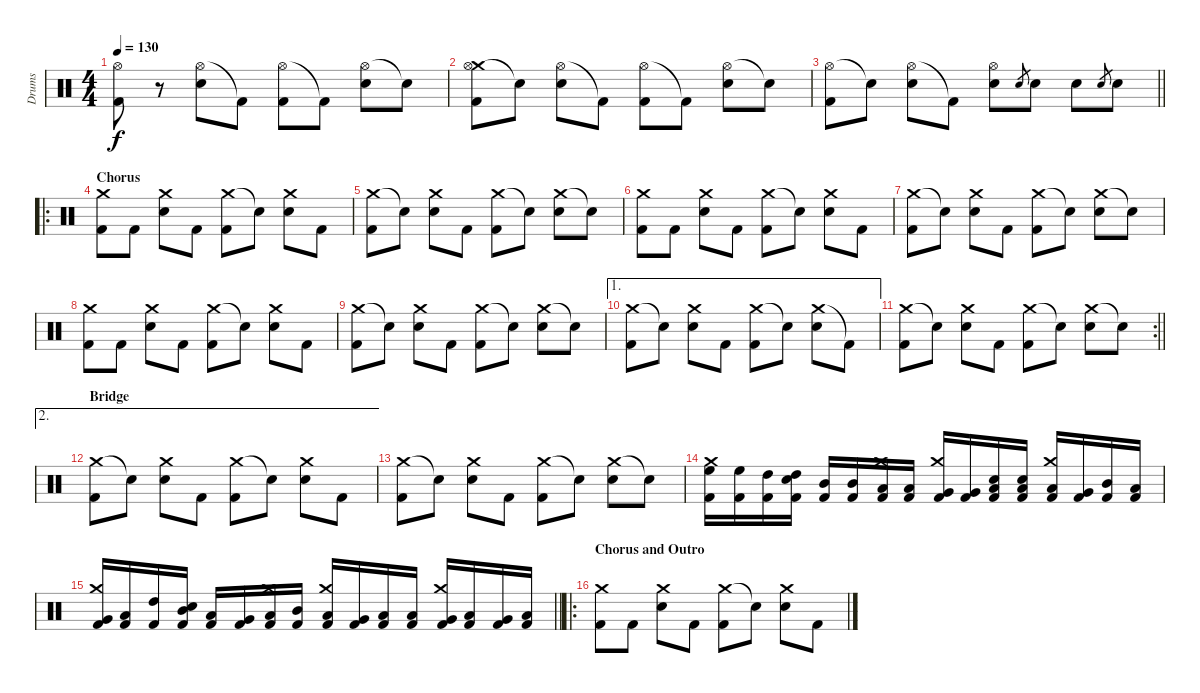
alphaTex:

\track ("Drums" "Drums") {instrument percussion}
\staff {score}
\articulation defaults
\ts (4 4)
\tempo 130
\clef neutral
\ks c
("Hi-Hat (open)" "Kick (hit) 2").8{dy f} r.8 ("Hi-Hat (open)" "Electric Snare (hit)").8 "Kick (hit) 2"{t}.8 ("Hi-Hat (open)" "Kick (hit) 2").8 "Kick (hit) 2"{t}.8 ("Hi-Hat (open)" "Electric Snare (hit)").8 "Snare (hit)"{t}.8 |
("Crash medium (hit)" "Hi-Hat (open)" "Kick (hit) 2").8 "Snare (hit)"{t}.8 ("Hi-Hat (open)" "Electric Snare (hit)").8 "Kick (hit) 2"{t}.8 ("Hi-Hat (open)" "Kick (hit) 2").8 "Kick (hit) 2"{t}.8 ("Hi-Hat (open)" "Electric Snare (hit)").8 "Snare (hit)"{t}.8 |
\barLineRight lightlight
("Hi-Hat (open)" "Kick (hit) 2").8 "Snare (hit)"{t}.8 ("Hi-Hat (open)" "Electric Snare (hit)").8 "Kick (hit) 2"{t}.8 ("Hi-Hat (open)" "Electric Snare (hit)").8 "Electric Snare (hit)".8{gr} "Electric Snare (hit)".8 "Electric Snare (hit)".8 "Electric Snare (hit)".8{gr} "Electric Snare (hit)".8 |
\ro
\section ("" "Chorus")
("Crash medium (hit)" "Kick (hit) 2").8 "Kick (hit) 2".8 ("Crash medium (hit)" "Electric Snare (hit)").8 "Kick (hit) 2".8 ("Crash medium (hit)" "Kick (hit) 2").8 "Snare (hit)"{t}.8 ("Crash medium (hit)" "Electric Snare (hit)").8 "Kick (hit) 2".8 |
("Crash medium (hit)" "Kick (hit) 2").8 "Snare (hit)"{t}.8 ("Crash medium (hit)" "Electric Snare (hit)").8 "Kick (hit) 2".8 ("Crash medium (hit)" "Kick (hit) 2").8 "Snare (hit)"{t}.8 ("Crash medium (hit)" "Electric Snare (hit)").8 "Snare (hit)"{t}.8 |
("Crash medium (hit)" "Kick (hit) 2").8 "Kick (hit) 2".8 ("Crash medium (hit)" "Electric Snare (hit)").8 "Kick (hit) 2".8 ("Crash medium (hit)" "Kick (hit) 2").8 "Snare (hit)"{t}.8 ("Crash medium (hit)" "Electric Snare (hit)").8 "Kick (hit) 2".8 |
("Crash medium (hit)" "Kick (hit) 2").8 "Snare (hit)"{t}.8 ("Crash medium (hit)" "Electric Snare (hit)").8 "Kick (hit) 2".8 ("Crash medium (hit)" "Kick (hit) 2").8 "Snare (hit)"{t}.8 ("Crash medium (hit)" "Electric Snare (hit)").8 "Snare (hit)"{t}.8 |
("Crash medium (hit)" "Kick (hit) 2").8 "Kick (hit) 2".8 ("Crash medium (hit)" "Electric Snare (hit)").8 "Kick (hit) 2".8 ("Crash medium (hit)" "Kick (hit) 2").8 "Snare (hit)"{t}.8 ("Crash medium (hit)" "Electric Snare (hit)").8 "Kick (hit) 2".8 |
("Crash medium (hit)" "Kick (hit) 2").8 "Snare (hit)"{t}.8 ("Crash medium (hit)" "Electric Snare (hit)").8 "Kick (hit) 2".8 ("Crash medium (hit)" "Kick (hit) 2").8 "Snare (hit)"{t}.8 ("Crash medium (hit)" "Electric Snare (hit)").8 "Snare (hit)"{t}.8 |
\ae 1
("Crash medium (hit)" "Kick (hit) 2").8 "Snare (hit)"{t}.8 ("Crash medium (hit)" "Electric Snare (hit)").8 "Kick (hit) 2".8 ("Crash medium (hit)" "Kick (hit) 2").8 "Snare (hit)"{t}.8 ("Crash medium (hit)" "Electric Snare (hit)").8 "Kick (hit) 2"{t}.8 |
\rc 2
\barLineRight lightlight
("Crash medium (hit)" "Kick (hit) 2").8 "Electric Snare (hit)"{t}.8 ("Crash medium (hit)" "Electric Snare (hit)").8 "Kick (hit) 2".8 ("Crash medium (hit)" "Kick (hit) 2").8 "Electric Snare (hit)"{t}.8 ("Crash medium (hit)" "Electric Snare (hit)").8 "Snare (hit)"{t}.8 |
\ae 2
\section ("" "Bridge")
("Crash medium (hit)" "Kick (hit) 2").8 "Snare (hit)"{t}.8 ("Crash medium (hit)" "Electric Snare (hit)").8 "Kick (hit) 2".8 ("Crash medium (hit)" "Kick (hit) 2").8 "Snare (hit)"{t}.8 ("Crash medium (hit)" "Electric Snare (hit)").8 "Kick (hit) 2".8 |
("Crash medium (hit)" "Kick (hit) 2").8 "Electric Snare (hit)"{t}.8 ("Crash medium (hit)" "Electric Snare (hit)").8 "Kick (hit) 2".8 ("Crash medium (hit)" "Kick (hit) 2").8 "Electric Snare (hit)"{t}.8 ("Crash medium (hit)" "Electric Snare (hit)").8 "Snare (hit)"{t}.8 |
("Crash medium (hit)" "Kick (hit) 2" "High Floor Tom (hit)").16 ("Kick (hit) 2" "High Floor Tom (hit)").16 ("Kick (hit) 2" "High Tom (hit)").16 ("Kick (hit) 2" "High Tom (hit)" "Electric Snare (hit)").16 ("Kick (hit) 2" "Mid Tom (hit)").16 ("Kick (hit) 2" "Mid Tom (hit)").16 ("Crash medium (hit)" "Kick (hit) 2" "Low Tom (hit)").16 ("Kick (hit) 2" "Low Tom (hit)").16 ("Crash medium (hit)" "Kick (hit) 2" "Very Low Tom (hit)").16 ("Kick (hit) 2" "Very Low Tom (hit)").16 ("Kick (hit) 2" "Low Floor Tom (hit)" "Snare (hit)").16 ("Kick (hit) 2" "Low Floor Tom (hit)" "Electric Snare (hit)").16 ("Crash medium (hit)" "Kick (hit) 2" "Low Tom (hit)").16 ("Kick (hit) 2" "Very Low Tom (hit)").16 ("Kick (hit) 2" "Mid Tom (hit)").16 ("Kick (hit) 2" "Low Tom (hit)").16 |
\barLineRight lightlight
("Crash medium (hit)" "Kick (hit) 2" "Very Low Tom (hit)").16 ("Kick (hit) 2" "Low Floor Tom (hit)").16 ("Kick (hit) 2" "High Tom (hit)").16 ("Kick (hit) 2" "Mid Tom (hit)" "Electric Snare (hit)").16 ("Kick (hit) 2" "Low Tom (hit)").16 ("Kick (hit) 2" "Very Low Tom (hit)").16 ("Crash medium (hit)" "Kick (hit) 2" "Low Tom (hit)").16 ("Kick (hit) 2" "Mid Tom (hit)").16 ("Crash medium (hit)" "Kick (hit) 2" "Low Tom (hit)").16 ("Kick (hit) 2" "Very Low Tom (hit)").16 ("Kick (hit) 2" "Low Floor Tom (hit)").16 ("Kick (hit) 2" "Low Tom (hit)").16 ("Crash medium (hit)" "Kick (hit) 2" "Very Low Tom (hit)").16 ("Kick (hit) 2" "Low Floor Tom (hit)").16 ("Kick (hit) 2" "Very Low Tom (hit)").16 ("Kick (hit) 2" "Low Floor Tom (hit)").16 |
\ro
\section ("" "Chorus and Outro")
("Crash medium (hit)" "Kick (hit) 2").8 "Kick (hit) 2".8 ("Crash medium (hit)" "Electric Snare (hit)").8 "Kick (hit) 2".8 ("Crash medium (hit)" "Kick (hit) 2").8 "Snare (hit)"{t}.8 ("Crash medium (hit)" "Electric Snare (hit)").8 "Kick (hit) 2".8
